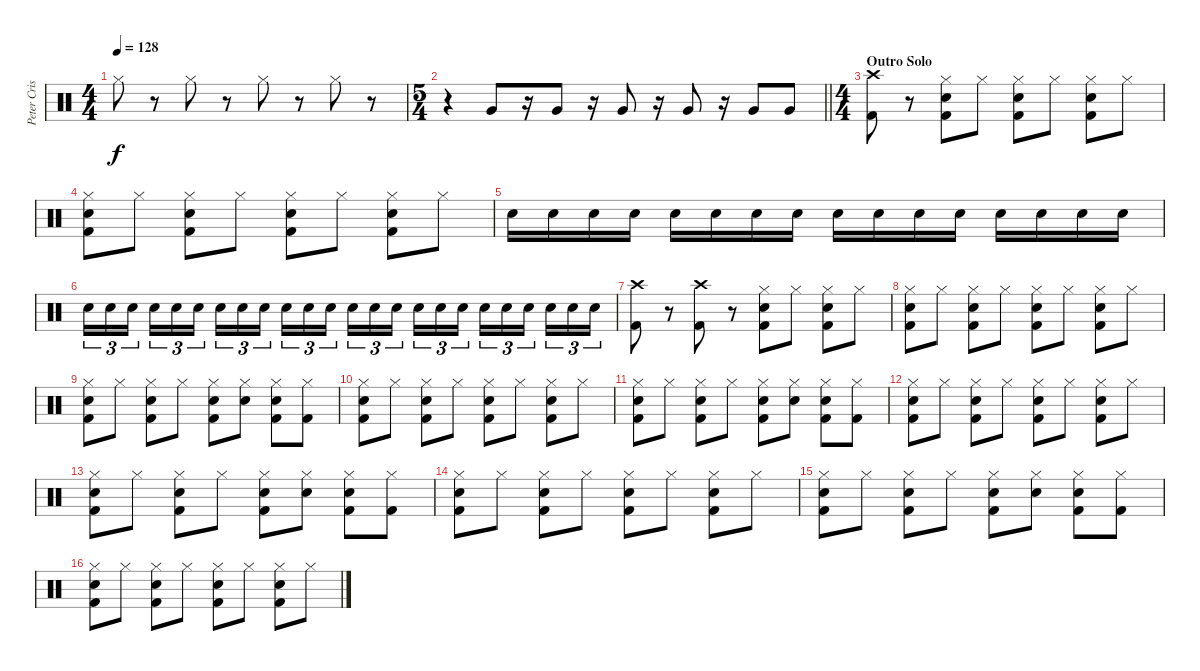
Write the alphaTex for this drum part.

\track ("Peter Criss" "Peter Cris") {instrument percussion}
\staff {score}
\articulation defaults
\ts (4 4)
\tempo 128
\clef neutral
\ks c "Hi-Hat (closed)".8{dy f}
r.8 "Hi-Hat (closed)".8 r.8 "Hi-Hat (closed)".8 r.8 "Hi-Hat (closed)".8 r.8 |
\ts (5 4)
\barLineRight lightlight
r.4 "Very Low Tom (hit)".8 r.16 "Very Low Tom (hit)".8 r.16 "Very Low Tom (hit)".8 r.16 "Very Low Tom (hit)".8 r.16 "Very Low Tom (hit)".8 "Very Low Tom (hit)".8 |
\ts (4 4)
\section ("" "Outro Solo")
("Crash high (hit)" "Kick (hit) 2").8 r.8 ("Hi-Hat (closed)" "Electric Snare (hit)" "Kick (hit) 2").8 "Hi-Hat (closed)".8 ("Hi-Hat (closed)" "Electric Snare (hit)" "Kick (hit) 2").8 "Hi-Hat (closed)".8 ("Hi-Hat (closed)" "Electric Snare (hit)" "Kick (hit) 2").8 "Hi-Hat (closed)".8 |
("Hi-Hat (closed)" "Electric Snare (hit)" "Kick (hit) 2").8 "Hi-Hat (closed)".8 ("Hi-Hat (closed)" "Electric Snare (hit)" "Kick (hit) 2").8 "Hi-Hat (closed)".8 ("Hi-Hat (closed)" "Electric Snare (hit)" "Kick (hit) 2").8 "Hi-Hat (closed)".8 ("Hi-Hat (closed)" "Electric Snare (hit)" "Kick (hit) 2").8 "Hi-Hat (closed)".8 |
"Electric Snare (hit)".16 "Electric Snare (hit)".16 "Electric Snare (hit)".16 "Electric Snare (hit)".16 "Electric Snare (hit)".16 "Electric Snare (hit)".16 "Electric Snare (hit)".16 "Electric Snare (hit)".16 "Electric Snare (hit)".16 "Electric Snare (hit)".16 "Electric Snare (hit)".16 "Electric Snare (hit)".16 "Electric Snare (hit)".16 "Electric Snare (hit)".16 "Electric Snare (hit)".16 "Electric Snare (hit)".16 |
"Electric Snare (hit)".16{tu (3 2)} "Electric Snare (hit)".16{tu (3 2)} "Electric Snare (hit)".16{tu (3 2)} "Electric Snare (hit)".16{tu (3 2)} "Electric Snare (hit)".16{tu (3 2)} "Electric Snare (hit)".16{tu (3 2)} "Electric Snare (hit)".16{tu (3 2)} "Electric Snare (hit)".16{tu (3 2)} "Electric Snare (hit)".16{tu (3 2)} "Electric Snare (hit)".16{tu (3 2)} "Electric Snare (hit)".16{tu (3 2)} "Electric Snare (hit)".16{tu (3 2)} "Electric Snare (hit)".16{tu (3 2)} "Electric Snare (hit)".16{tu (3 2)} "Electric Snare (hit)".16{tu (3 2)} "Electric Snare (hit)".16{tu (3 2)} "Electric Snare (hit)".16{tu (3 2)} "Electric Snare (hit)".16{tu (3 2)} "Electric Snare (hit)".16{tu (3 2)} "Electric Snare (hit)".16{tu (3 2)} "Electric Snare (hit)".16{tu (3 2)} "Electric Snare (hit)".16{tu (3 2)} "Electric Snare (hit)".16{tu (3 2)} "Electric Snare (hit)".16{tu (3 2)} |
("Crash high (hit)" "Kick (hit) 2").8 r.8 ("Crash high (hit)" "Kick (hit) 2").8 r.8 ("Hi-Hat (closed)" "Electric Snare (hit)" "Kick (hit) 2").8 "Hi-Hat (closed)".8 ("Hi-Hat (closed)" "Electric Snare (hit)" "Kick (hit) 2").8 "Hi-Hat (closed)".8 |
("Hi-Hat (closed)" "Electric Snare (hit)" "Kick (hit) 2").8 "Hi-Hat (closed)".8 ("Hi-Hat (closed)" "Electric Snare (hit)" "Kick (hit) 2").8 "Hi-Hat (closed)".8 ("Hi-Hat (closed)" "Electric Snare (hit)" "Kick (hit) 2").8 "Hi-Hat (closed)".8 ("Hi-Hat (closed)" "Electric Snare (hit)" "Kick (hit) 2").8 "Hi-Hat (closed)".8 |
("Hi-Hat (closed)" "Electric Snare (hit)" "Kick (hit) 2").8 "Hi-Hat (closed)".8 ("Hi-Hat (closed)" "Electric Snare (hit)" "Kick (hit) 2").8 "Hi-Hat (closed)".8 ("Hi-Hat (closed)" "Electric Snare (hit)" "Kick (hit) 2").8 ("Hi-Hat (closed)" "Electric Snare (hit)").8 ("Hi-Hat (closed)" "Electric Snare (hit)" "Kick (hit) 2").8 ("Hi-Hat (closed)" "Kick (hit) 2").8 |
("Hi-Hat (closed)" "Electric Snare (hit)" "Kick (hit) 2").8 "Hi-Hat (closed)".8 ("Hi-Hat (closed)" "Electric Snare (hit)" "Kick (hit) 2").8 "Hi-Hat (closed)".8 ("Hi-Hat (closed)" "Electric Snare (hit)" "Kick (hit) 2").8 "Hi-Hat (closed)".8 ("Hi-Hat (closed)" "Electric Snare (hit)" "Kick (hit) 2").8 "Hi-Hat (closed)".8 |
("Hi-Hat (closed)" "Electric Snare (hit)" "Kick (hit) 2").8 "Hi-Hat (closed)".8 ("Hi-Hat (closed)" "Electric Snare (hit)" "Kick (hit) 2").8 "Hi-Hat (closed)".8 ("Hi-Hat (closed)" "Electric Snare (hit)" "Kick (hit) 2").8 ("Hi-Hat (closed)" "Electric Snare (hit)").8 ("Hi-Hat (closed)" "Electric Snare (hit)" "Kick (hit) 2").8 ("Hi-Hat (closed)" "Kick (hit) 2").8 |
("Hi-Hat (closed)" "Electric Snare (hit)" "Kick (hit) 2").8 "Hi-Hat (closed)".8 ("Hi-Hat (closed)" "Electric Snare (hit)" "Kick (hit) 2").8 "Hi-Hat (closed)".8 ("Hi-Hat (closed)" "Electric Snare (hit)" "Kick (hit) 2").8 "Hi-Hat (closed)".8 ("Hi-Hat (closed)" "Electric Snare (hit)" "Kick (hit) 2").8 "Hi-Hat (closed)".8 |
("Hi-Hat (closed)" "Electric Snare (hit)" "Kick (hit) 2").8 "Hi-Hat (closed)".8 ("Hi-Hat (closed)" "Electric Snare (hit)" "Kick (hit) 2").8 "Hi-Hat (closed)".8 ("Hi-Hat (closed)" "Electric Snare (hit)" "Kick (hit) 2").8 ("Hi-Hat (closed)" "Electric Snare (hit)").8 ("Hi-Hat (closed)" "Electric Snare (hit)" "Kick (hit) 2").8 ("Hi-Hat (closed)" "Kick (hit) 2").8 |
("Hi-Hat (closed)" "Electric Snare (hit)" "Kick (hit) 2").8 "Hi-Hat (closed)".8 ("Hi-Hat (closed)" "Electric Snare (hit)" "Kick (hit) 2").8 "Hi-Hat (closed)".8 ("Hi-Hat (closed)" "Electric Snare (hit)" "Kick (hit) 2").8 "Hi-Hat (closed)".8 ("Hi-Hat (closed)" "Electric Snare (hit)" "Kick (hit) 2").8 "Hi-Hat (closed)".8 |
("Hi-Hat (closed)" "Electric Snare (hit)" "Kick (hit) 2").8 "Hi-Hat (closed)".8 ("Hi-Hat (closed)" "Electric Snare (hit)" "Kick (hit) 2").8 "Hi-Hat (closed)".8 ("Hi-Hat (closed)" "Electric Snare (hit)" "Kick (hit) 2").8 ("Hi-Hat (closed)" "Electric Snare (hit)").8 ("Hi-Hat (closed)" "Electric Snare (hit)" "Kick (hit) 2").8 ("Hi-Hat (closed)" "Kick (hit) 2").8 |
("Hi-Hat (closed)" "Electric Snare (hit)" "Kick (hit) 2").8 "Hi-Hat (closed)".8 ("Hi-Hat (closed)" "Electric Snare (hit)" "Kick (hit) 2").8 "Hi-Hat (closed)".8 ("Hi-Hat (closed)" "Electric Snare (hit)" "Kick (hit) 2").8 "Hi-Hat (closed)".8 ("Hi-Hat (closed)" "Electric Snare (hit)" "Kick (hit) 2").8 "Hi-Hat (closed)".8
